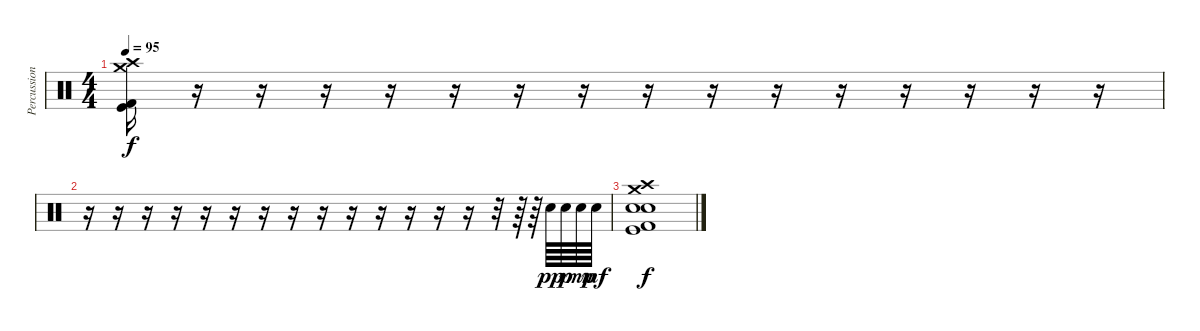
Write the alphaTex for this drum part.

\track ("Percussion" "Percussion") {instrument percussion}
\staff {score}
\articulation defaults
\ts (4 4)
\tempo 95
\clef neutral
\ks c
("Crash medium (hit)" "Crash high (hit)" "Kick (hit) 2" "Kick (hit)").16{dy f} r.16 r.16 r.16 r.16 r.16 r.16 r.16 r.16 r.16 r.16 r.16 r.16 r.16 r.16 r.16 |
r.16 r.16 r.16 r.16 r.16 r.16 r.16 r.16 r.16 r.16 r.16 r.16 r.16 r.16 r.32 r.64 r.64 "Snare (hit) 2".64{dy pp} "Snare (hit) 2".64{dy p} "Snare (hit) 2".64{dy mp} "Snare (hit) 2".64{dy mf} |
("Crash high (hit)" "Electric Snare (hit)" "Snare (hit) 2" "Kick (hit)" "Kick (hit) 2" "Crash medium (hit)").1{dy f}
